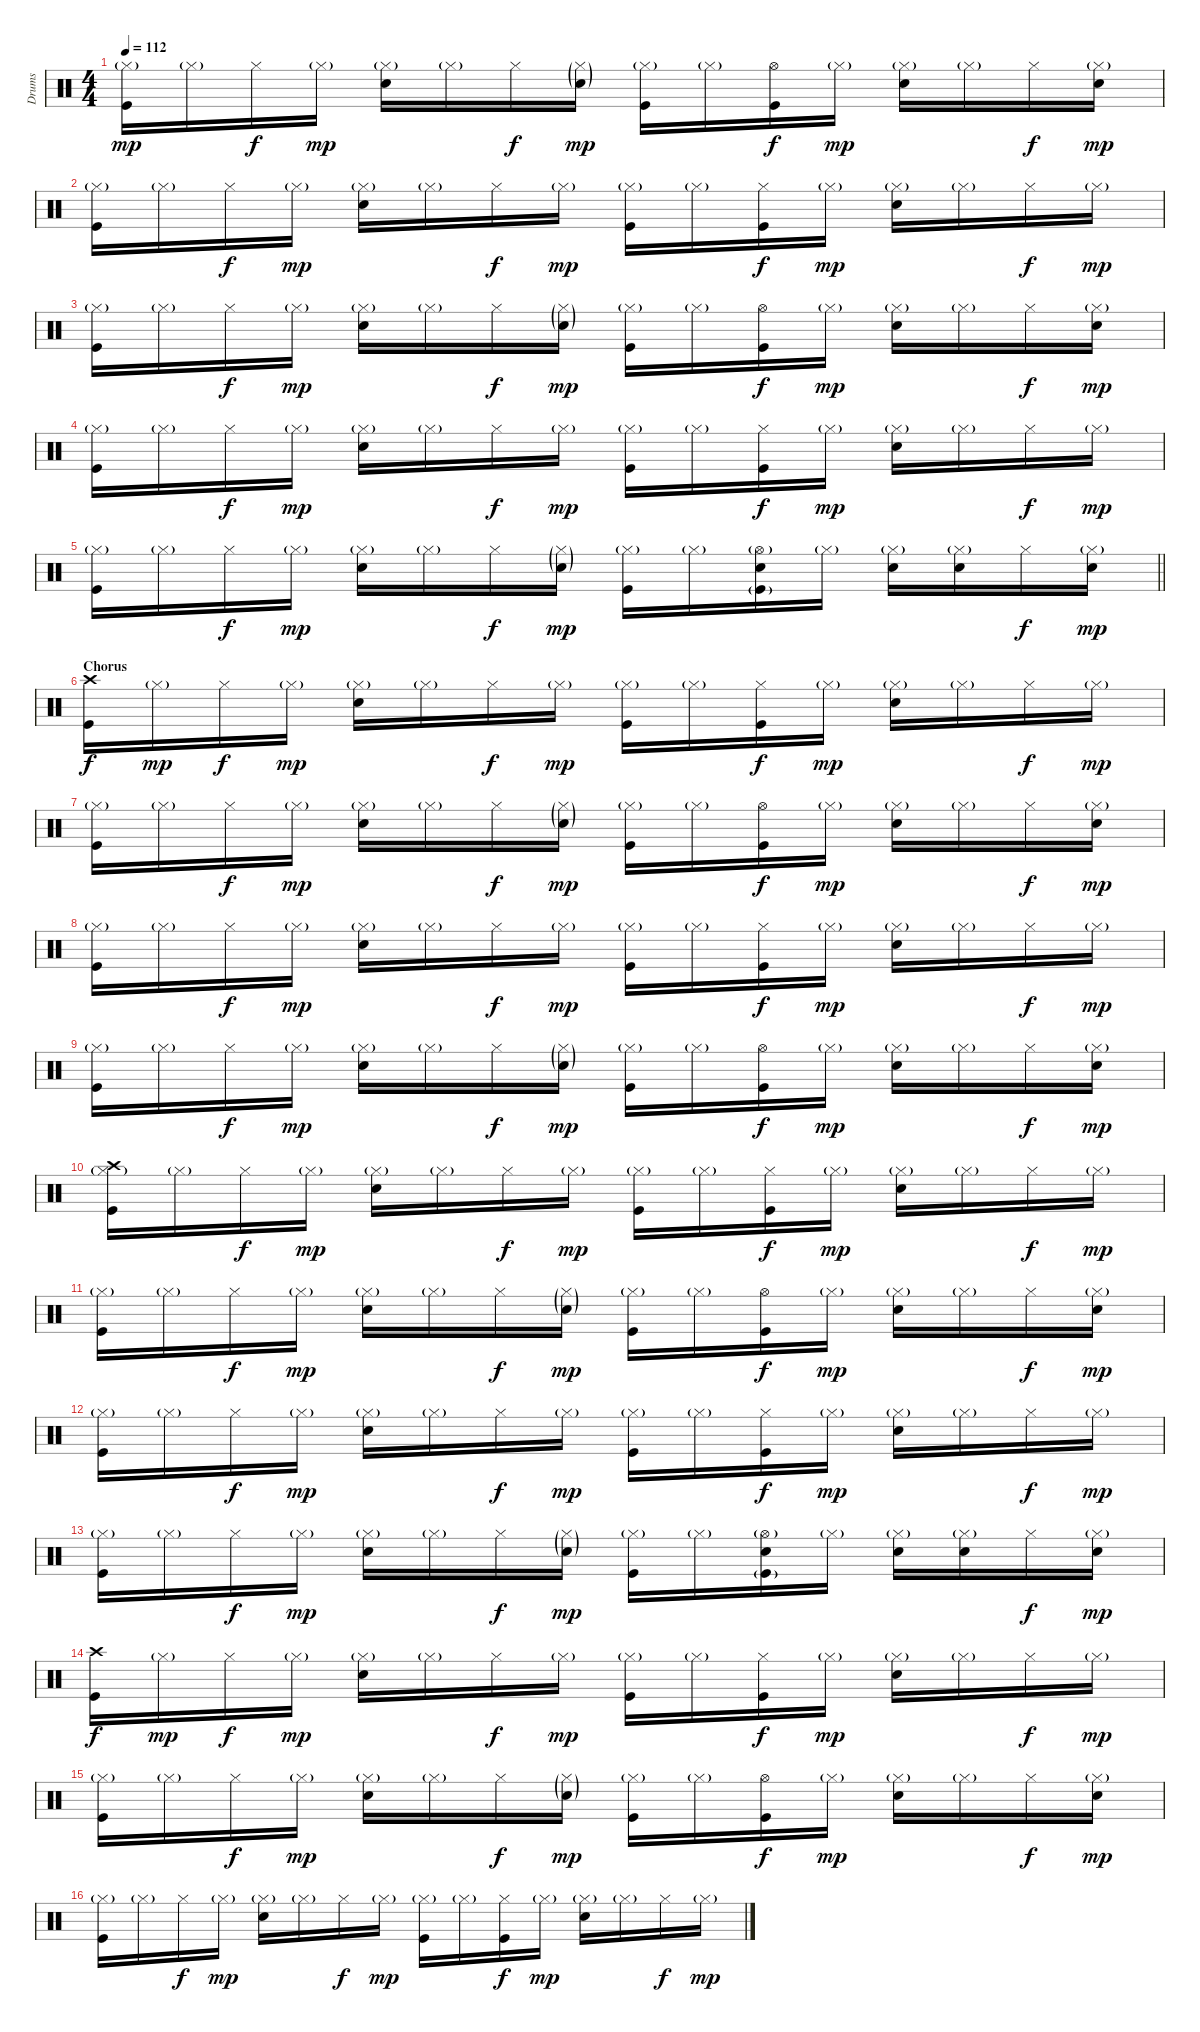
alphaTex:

\track ("Drums" "Drums") {instrument percussion}
\staff {score}
\articulation defaults
\ts (4 4)
\tempo 112
\clef neutral
\ks c
("Hi-Hat (closed)"{g} "Kick (hit)").16{dy mp} "Hi-Hat (closed)"{g}.16 "Hi-Hat (closed)".16{dy f} "Hi-Hat (closed)"{g}.16{dy mp} ("Hi-Hat (closed)"{g} "Snare (hit) 2").16 "Hi-Hat (closed)"{g}.16 "Hi-Hat (closed)".16{dy f} ("Hi-Hat (closed)"{g} "Snare (hit) 2"{g}).16{dy mp} ("Hi-Hat (closed)"{g} "Kick (hit)").16 "Hi-Hat (closed)"{g}.16 ("Hi-Hat (open)" "Kick (hit)").16{dy f} "Hi-Hat (closed)"{g}.16{dy mp} ("Hi-Hat (closed)"{g} "Snare (hit) 2").16 "Hi-Hat (closed)"{g}.16 "Hi-Hat (closed)".16{dy f} ("Hi-Hat (closed)"{g} "Snare (hit) 2").16{dy mp} |
("Hi-Hat (closed)"{g} "Kick (hit)").16 "Hi-Hat (closed)"{g}.16 "Hi-Hat (closed)".16{dy f} "Hi-Hat (closed)"{g}.16{dy mp} ("Hi-Hat (closed)"{g} "Snare (hit) 2").16 "Hi-Hat (closed)"{g}.16 "Hi-Hat (closed)".16{dy f} "Hi-Hat (closed)"{g}.16{dy mp} ("Hi-Hat (closed)"{g} "Kick (hit)").16 "Hi-Hat (closed)"{g}.16 ("Hi-Hat (closed)" "Kick (hit)").16{dy f} "Hi-Hat (closed)"{g}.16{dy mp} ("Hi-Hat (closed)"{g} "Snare (hit) 2").16 "Hi-Hat (closed)"{g}.16 "Hi-Hat (closed)".16{dy f} "Hi-Hat (closed)"{g}.16{dy mp} |
("Hi-Hat (closed)"{g} "Kick (hit)").16 "Hi-Hat (closed)"{g}.16 "Hi-Hat (closed)".16{dy f} "Hi-Hat (closed)"{g}.16{dy mp} ("Hi-Hat (closed)"{g} "Snare (hit) 2").16 "Hi-Hat (closed)"{g}.16 "Hi-Hat (closed)".16{dy f} ("Hi-Hat (closed)"{g} "Snare (hit) 2"{g}).16{dy mp} ("Hi-Hat (closed)"{g} "Kick (hit)").16 "Hi-Hat (closed)"{g}.16 ("Hi-Hat (open)" "Kick (hit)").16{dy f} "Hi-Hat (closed)"{g}.16{dy mp} ("Hi-Hat (closed)"{g} "Snare (hit) 2").16 "Hi-Hat (closed)"{g}.16 "Hi-Hat (closed)".16{dy f} ("Hi-Hat (closed)"{g} "Snare (hit) 2").16{dy mp} |
("Hi-Hat (closed)"{g} "Kick (hit)").16 "Hi-Hat (closed)"{g}.16 "Hi-Hat (closed)".16{dy f} "Hi-Hat (closed)"{g}.16{dy mp} ("Hi-Hat (closed)"{g} "Snare (hit) 2").16 "Hi-Hat (closed)"{g}.16 "Hi-Hat (closed)".16{dy f} "Hi-Hat (closed)"{g}.16{dy mp} ("Hi-Hat (closed)"{g} "Kick (hit)").16 "Hi-Hat (closed)"{g}.16 ("Hi-Hat (closed)" "Kick (hit)").16{dy f} "Hi-Hat (closed)"{g}.16{dy mp} ("Hi-Hat (closed)"{g} "Snare (hit) 2").16 "Hi-Hat (closed)"{g}.16 "Hi-Hat (closed)".16{dy f} "Hi-Hat (closed)"{g}.16{dy mp} |
\barLineRight lightlight
("Hi-Hat (closed)"{g} "Kick (hit)").16 "Hi-Hat (closed)"{g}.16 "Hi-Hat (closed)".16{dy f} "Hi-Hat (closed)"{g}.16{dy mp} ("Hi-Hat (closed)"{g} "Snare (hit) 2").16 "Hi-Hat (closed)"{g}.16 "Hi-Hat (closed)".16{dy f} ("Hi-Hat (closed)"{g} "Snare (hit) 2"{g}).16{dy mp} ("Hi-Hat (closed)"{g} "Kick (hit)").16 "Hi-Hat (closed)"{g}.16 ("Hi-Hat (open)"{g} "Snare (hit) 2" "Kick (hit)"{g}).16 "Hi-Hat (closed)"{g}.16 ("Hi-Hat (closed)"{g} "Snare (hit) 2").16 ("Hi-Hat (closed)"{g} "Snare (hit) 2").16 "Hi-Hat (closed)".16{dy f} ("Hi-Hat (closed)"{g} "Snare (hit) 2").16{dy mp} |
\section ("" "Chorus")
("Crash high (hit)" "Kick (hit)").16{dy f} "Hi-Hat (closed)"{g}.16{dy mp} "Hi-Hat (closed)".16{dy f} "Hi-Hat (closed)"{g}.16{dy mp} ("Hi-Hat (closed)"{g} "Snare (hit) 2").16 "Hi-Hat (closed)"{g}.16 "Hi-Hat (closed)".16{dy f} "Hi-Hat (closed)"{g}.16{dy mp} ("Hi-Hat (closed)"{g} "Kick (hit)").16 "Hi-Hat (closed)"{g}.16 ("Hi-Hat (closed)" "Kick (hit)").16{dy f} "Hi-Hat (closed)"{g}.16{dy mp} ("Hi-Hat (closed)"{g} "Snare (hit) 2").16 "Hi-Hat (closed)"{g}.16 "Hi-Hat (closed)".16{dy f} "Hi-Hat (closed)"{g}.16{dy mp} |
("Hi-Hat (closed)"{g} "Kick (hit)").16 "Hi-Hat (closed)"{g}.16 "Hi-Hat (closed)".16{dy f} "Hi-Hat (closed)"{g}.16{dy mp} ("Hi-Hat (closed)"{g} "Snare (hit) 2").16 "Hi-Hat (closed)"{g}.16 "Hi-Hat (closed)".16{dy f} ("Hi-Hat (closed)"{g} "Snare (hit) 2"{g}).16{dy mp} ("Hi-Hat (closed)"{g} "Kick (hit)").16 "Hi-Hat (closed)"{g}.16 ("Hi-Hat (open)" "Kick (hit)").16{dy f} "Hi-Hat (closed)"{g}.16{dy mp} ("Hi-Hat (closed)"{g} "Snare (hit) 2").16 "Hi-Hat (closed)"{g}.16 "Hi-Hat (closed)".16{dy f} ("Hi-Hat (closed)"{g} "Snare (hit) 2").16{dy mp} |
("Hi-Hat (closed)"{g} "Kick (hit)").16 "Hi-Hat (closed)"{g}.16 "Hi-Hat (closed)".16{dy f} "Hi-Hat (closed)"{g}.16{dy mp} ("Hi-Hat (closed)"{g} "Snare (hit) 2").16 "Hi-Hat (closed)"{g}.16 "Hi-Hat (closed)".16{dy f} "Hi-Hat (closed)"{g}.16{dy mp} ("Hi-Hat (closed)"{g} "Kick (hit)").16 "Hi-Hat (closed)"{g}.16 ("Hi-Hat (closed)" "Kick (hit)").16{dy f} "Hi-Hat (closed)"{g}.16{dy mp} ("Hi-Hat (closed)"{g} "Snare (hit) 2").16 "Hi-Hat (closed)"{g}.16 "Hi-Hat (closed)".16{dy f} "Hi-Hat (closed)"{g}.16{dy mp} |
("Hi-Hat (closed)"{g} "Kick (hit)").16 "Hi-Hat (closed)"{g}.16 "Hi-Hat (closed)".16{dy f} "Hi-Hat (closed)"{g}.16{dy mp} ("Hi-Hat (closed)"{g} "Snare (hit) 2").16 "Hi-Hat (closed)"{g}.16 "Hi-Hat (closed)".16{dy f} ("Hi-Hat (closed)"{g} "Snare (hit) 2"{g}).16{dy mp} ("Hi-Hat (closed)"{g} "Kick (hit)").16 "Hi-Hat (closed)"{g}.16 ("Hi-Hat (open)" "Kick (hit)").16{dy f} "Hi-Hat (closed)"{g}.16{dy mp} ("Hi-Hat (closed)"{g} "Snare (hit) 2").16 "Hi-Hat (closed)"{g}.16 "Hi-Hat (closed)".16{dy f} ("Hi-Hat (closed)"{g} "Snare (hit) 2").16{dy mp} |
("Crash high (hit)" "Hi-Hat (closed)"{g} "Kick (hit)").16 "Hi-Hat (closed)"{g}.16 "Hi-Hat (closed)".16{dy f} "Hi-Hat (closed)"{g}.16{dy mp} ("Hi-Hat (closed)"{g} "Snare (hit) 2").16 "Hi-Hat (closed)"{g}.16 "Hi-Hat (closed)".16{dy f} "Hi-Hat (closed)"{g}.16{dy mp} ("Hi-Hat (closed)"{g} "Kick (hit)").16 "Hi-Hat (closed)"{g}.16 ("Hi-Hat (closed)" "Kick (hit)").16{dy f} "Hi-Hat (closed)"{g}.16{dy mp} ("Hi-Hat (closed)"{g} "Snare (hit) 2").16 "Hi-Hat (closed)"{g}.16 "Hi-Hat (closed)".16{dy f} "Hi-Hat (closed)"{g}.16{dy mp} |
("Hi-Hat (closed)"{g} "Kick (hit)").16 "Hi-Hat (closed)"{g}.16 "Hi-Hat (closed)".16{dy f} "Hi-Hat (closed)"{g}.16{dy mp} ("Hi-Hat (closed)"{g} "Snare (hit) 2").16 "Hi-Hat (closed)"{g}.16 "Hi-Hat (closed)".16{dy f} ("Hi-Hat (closed)"{g} "Snare (hit) 2"{g}).16{dy mp} ("Hi-Hat (closed)"{g} "Kick (hit)").16 "Hi-Hat (closed)"{g}.16 ("Hi-Hat (open)" "Kick (hit)").16{dy f} "Hi-Hat (closed)"{g}.16{dy mp} ("Hi-Hat (closed)"{g} "Snare (hit) 2").16 "Hi-Hat (closed)"{g}.16 "Hi-Hat (closed)".16{dy f} ("Hi-Hat (closed)"{g} "Snare (hit) 2").16{dy mp} |
("Hi-Hat (closed)"{g} "Kick (hit)").16 "Hi-Hat (closed)"{g}.16 "Hi-Hat (closed)".16{dy f} "Hi-Hat (closed)"{g}.16{dy mp} ("Hi-Hat (closed)"{g} "Snare (hit) 2").16 "Hi-Hat (closed)"{g}.16 "Hi-Hat (closed)".16{dy f} "Hi-Hat (closed)"{g}.16{dy mp} ("Hi-Hat (closed)"{g} "Kick (hit)").16 "Hi-Hat (closed)"{g}.16 ("Hi-Hat (closed)" "Kick (hit)").16{dy f} "Hi-Hat (closed)"{g}.16{dy mp} ("Hi-Hat (closed)"{g} "Snare (hit) 2").16 "Hi-Hat (closed)"{g}.16 "Hi-Hat (closed)".16{dy f} "Hi-Hat (closed)"{g}.16{dy mp} |
("Hi-Hat (closed)"{g} "Kick (hit)").16 "Hi-Hat (closed)"{g}.16 "Hi-Hat (closed)".16{dy f} "Hi-Hat (closed)"{g}.16{dy mp} ("Hi-Hat (closed)"{g} "Snare (hit) 2").16 "Hi-Hat (closed)"{g}.16 "Hi-Hat (closed)".16{dy f} ("Hi-Hat (closed)"{g} "Snare (hit) 2"{g}).16{dy mp} ("Hi-Hat (closed)"{g} "Kick (hit)").16 "Hi-Hat (closed)"{g}.16 ("Hi-Hat (open)"{g} "Snare (hit) 2" "Kick (hit)"{g}).16 "Hi-Hat (closed)"{g}.16 ("Hi-Hat (closed)"{g} "Snare (hit) 2").16 ("Hi-Hat (closed)"{g} "Snare (hit) 2").16 "Hi-Hat (closed)".16{dy f} ("Hi-Hat (closed)"{g} "Snare (hit) 2").16{dy mp} |
("Crash high (hit)" "Kick (hit)").16{dy f} "Hi-Hat (closed)"{g}.16{dy mp} "Hi-Hat (closed)".16{dy f} "Hi-Hat (closed)"{g}.16{dy mp} ("Hi-Hat (closed)"{g} "Snare (hit) 2").16 "Hi-Hat (closed)"{g}.16 "Hi-Hat (closed)".16{dy f} "Hi-Hat (closed)"{g}.16{dy mp} ("Hi-Hat (closed)"{g} "Kick (hit)").16 "Hi-Hat (closed)"{g}.16 ("Hi-Hat (closed)" "Kick (hit)").16{dy f} "Hi-Hat (closed)"{g}.16{dy mp} ("Hi-Hat (closed)"{g} "Snare (hit) 2").16 "Hi-Hat (closed)"{g}.16 "Hi-Hat (closed)".16{dy f} "Hi-Hat (closed)"{g}.16{dy mp} |
("Hi-Hat (closed)"{g} "Kick (hit)").16 "Hi-Hat (closed)"{g}.16 "Hi-Hat (closed)".16{dy f} "Hi-Hat (closed)"{g}.16{dy mp} ("Hi-Hat (closed)"{g} "Snare (hit) 2").16 "Hi-Hat (closed)"{g}.16 "Hi-Hat (closed)".16{dy f} ("Hi-Hat (closed)"{g} "Snare (hit) 2"{g}).16{dy mp} ("Hi-Hat (closed)"{g} "Kick (hit)").16 "Hi-Hat (closed)"{g}.16 ("Hi-Hat (open)" "Kick (hit)").16{dy f} "Hi-Hat (closed)"{g}.16{dy mp} ("Hi-Hat (closed)"{g} "Snare (hit) 2").16 "Hi-Hat (closed)"{g}.16 "Hi-Hat (closed)".16{dy f} ("Hi-Hat (closed)"{g} "Snare (hit) 2").16{dy mp} |
("Hi-Hat (closed)"{g} "Kick (hit)").16 "Hi-Hat (closed)"{g}.16 "Hi-Hat (closed)".16{dy f} "Hi-Hat (closed)"{g}.16{dy mp} ("Hi-Hat (closed)"{g} "Snare (hit) 2").16 "Hi-Hat (closed)"{g}.16 "Hi-Hat (closed)".16{dy f} "Hi-Hat (closed)"{g}.16{dy mp} ("Hi-Hat (closed)"{g} "Kick (hit)").16 "Hi-Hat (closed)"{g}.16 ("Hi-Hat (closed)" "Kick (hit)").16{dy f} "Hi-Hat (closed)"{g}.16{dy mp} ("Hi-Hat (closed)"{g} "Snare (hit) 2").16 "Hi-Hat (closed)"{g}.16 "Hi-Hat (closed)".16{dy f} "Hi-Hat (closed)"{g}.16{dy mp}
